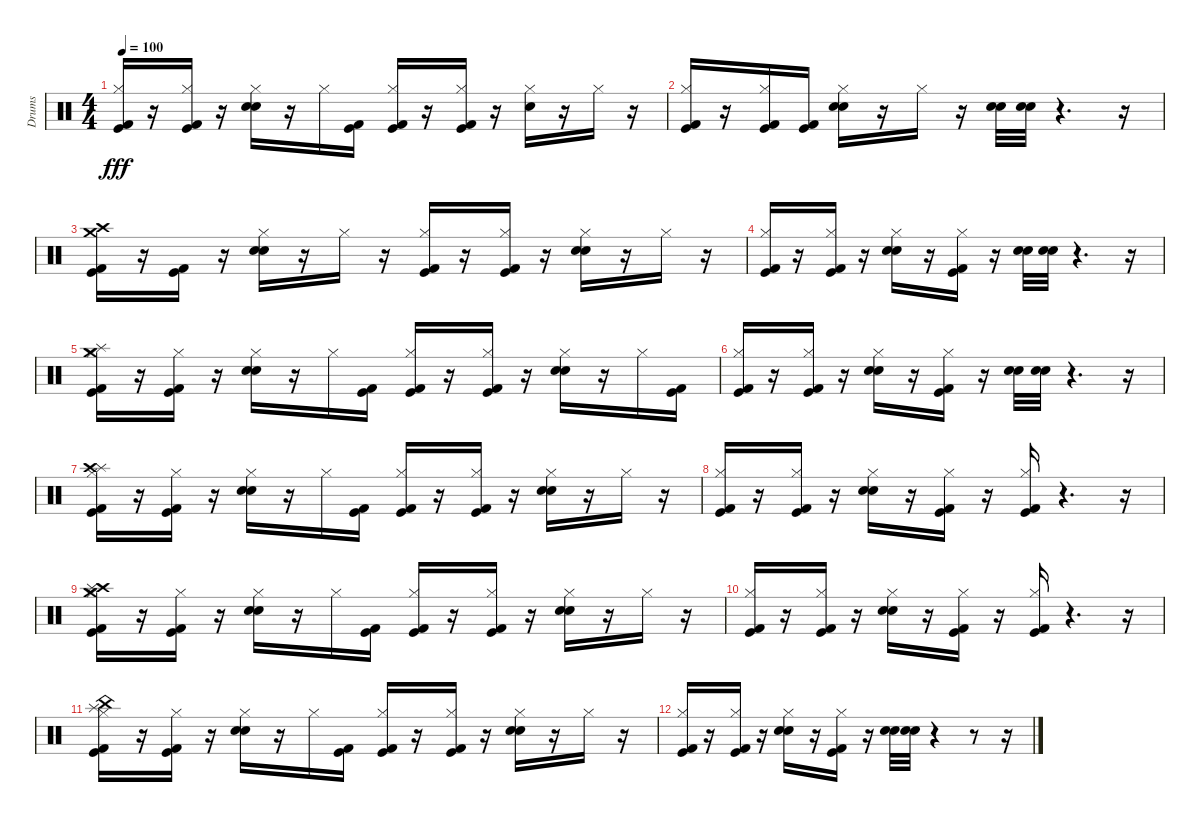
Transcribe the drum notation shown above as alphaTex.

\track ("Drums" "Drums") {instrument percussion}
\staff {score}
\articulation defaults
\ts (4 4)
\tempo 100
\clef neutral
\ks c
("Kick (hit)" "Hi-Hat (closed)" "Kick (hit) 2").16{dy fff} r.16 ("Kick (hit)" "Hi-Hat (closed)" "Kick (hit) 2").16 r.16 ("Electric Snare (hit)" "Snare (hit) 2" "Hi-Hat (closed)").16 r.16 "Hi-Hat (closed)".16 ("Kick (hit)" "Kick (hit) 2").16 ("Kick (hit) 2" "Kick (hit)" "Hi-Hat (closed)").16 r.16 ("Hi-Hat (closed)" "Kick (hit) 2" "Kick (hit)").16 r.16 ("Hi-Hat (closed)" "Electric Snare (hit)").16 r.16 "Hi-Hat (closed)".16 r.16 |
("Kick (hit) 2" "Kick (hit)" "Hi-Hat (closed)").16 r.16 ("Kick (hit)" "Hi-Hat (closed)" "Kick (hit) 2").16 ("Kick (hit)" "Kick (hit) 2").16 ("Hi-Hat (closed)" "Snare (hit) 2" "Electric Snare (hit)").16 r.16 "Hi-Hat (closed)".16 r.16 ("Electric Snare (hit)" "Snare (hit) 2").32 ("Electric Snare (hit)" "Snare (hit) 2").32 r.4{d} r.16 |
("Crash medium (hit)" "Crash high (hit)" "Kick (hit)" "Kick (hit) 2").16 r.16 ("Kick (hit)" "Kick (hit) 2").16 r.16 ("Hi-Hat (closed)" "Electric Snare (hit)" "Snare (hit) 2").16 r.16 "Hi-Hat (closed)".16 r.16 ("Hi-Hat (closed)" "Kick (hit) 2" "Kick (hit)").16 r.16 ("Kick (hit) 2" "Kick (hit)" "Hi-Hat (closed)").16 r.16 ("Snare (hit) 2" "Hi-Hat (closed)" "Electric Snare (hit)").16 r.16 "Hi-Hat (closed)".16 r.16 |
("Kick (hit)" "Kick (hit) 2" "Hi-Hat (closed)").16 r.16 ("Kick (hit)" "Kick (hit) 2" "Hi-Hat (closed)").16 r.16 ("Snare (hit) 2" "Hi-Hat (closed)" "Electric Snare (hit)").16 r.16 ("Kick (hit)" "Kick (hit) 2" "Hi-Hat (closed)").16 r.16 ("Electric Snare (hit)" "Snare (hit) 2").32 ("Electric Snare (hit)" "Snare (hit) 2").32 r.4{d} r.16 |
("Kick (hit)" "Hi-Hat (closed)" "Kick (hit) 2" "Crash medium (hit)" "Splash (hit)").16 r.16 ("Kick (hit)" "Hi-Hat (closed)" "Kick (hit) 2").16 r.16 ("Hi-Hat (closed)" "Snare (hit) 2" "Electric Snare (hit)").16 r.16 "Hi-Hat (closed)".16 ("Kick (hit)" "Kick (hit) 2").16 ("Kick (hit)" "Kick (hit) 2" "Hi-Hat (closed)").16 r.16 ("Kick (hit)" "Kick (hit) 2" "Hi-Hat (closed)").16 r.16 ("Snare (hit) 2" "Hi-Hat (closed)" "Electric Snare (hit)").16 r.16 "Hi-Hat (closed)".16 ("Kick (hit) 2" "Kick (hit)").16 |
("Hi-Hat (closed)" "Kick (hit)" "Kick (hit) 2").16 r.16 ("Kick (hit)" "Kick (hit) 2" "Hi-Hat (closed)").16 r.16 ("Electric Snare (hit)" "Snare (hit) 2" "Hi-Hat (closed)").16 r.16 ("Kick (hit)" "Kick (hit) 2" "Hi-Hat (closed)").16 r.16 ("Electric Snare (hit)" "Snare (hit) 2").32 ("Electric Snare (hit)" "Snare (hit) 2").32 r.4{d} r.16 |
("Kick (hit)" "Splash (hit)" "Crash high (hit)" "Kick (hit) 2" "Hi-Hat (closed)").16 r.16 ("Kick (hit)" "Kick (hit) 2" "Hi-Hat (closed)").16 r.16 ("Snare (hit) 2" "Electric Snare (hit)" "Hi-Hat (closed)").16 r.16 "Hi-Hat (closed)".16 ("Kick (hit)" "Kick (hit) 2").16 ("Kick (hit) 2" "Hi-Hat (closed)" "Kick (hit)").16 r.16 ("Kick (hit)" "Hi-Hat (closed)" "Kick (hit) 2").16 r.16 ("Hi-Hat (closed)" "Snare (hit) 2" "Electric Snare (hit)").16 r.16 "Hi-Hat (closed)".16 r.16 |
("Hi-Hat (closed)" "Kick (hit) 2" "Kick (hit)").16 r.16 ("Kick (hit)" "Hi-Hat (closed)" "Kick (hit) 2").16 r.16 ("Electric Snare (hit)" "Snare (hit) 2" "Hi-Hat (closed)").16 r.16 ("Kick (hit) 2" "Hi-Hat (closed)" "Kick (hit)").16 r.16 ("Hi-Hat (closed)" "Kick (hit) 2" "Kick (hit)").16 r.4{d} r.16 |
("Crash medium (hit)" "Crash high (hit)" "Kick (hit) 2" "Splash (hit)" "Hi-Hat (closed)" "Kick (hit)").16 r.16 ("Kick (hit) 2" "Hi-Hat (closed)" "Kick (hit)").16 r.16 ("Hi-Hat (closed)" "Snare (hit) 2" "Electric Snare (hit)").16 r.16 "Hi-Hat (closed)".16 ("Kick (hit) 2" "Kick (hit)").16 ("Kick (hit) 2" "Hi-Hat (closed)" "Kick (hit)").16 r.16 ("Kick (hit) 2" "Kick (hit)" "Hi-Hat (closed)").16 r.16 ("Snare (hit) 2" "Hi-Hat (closed)" "Electric Snare (hit)").16 r.16 "Hi-Hat (closed)".16 r.16 |
("Kick (hit) 2" "Kick (hit)" "Hi-Hat (closed)").16 r.16 ("Kick (hit)" "Kick (hit) 2" "Hi-Hat (closed)").16 r.16 ("Hi-Hat (closed)" "Electric Snare (hit)" "Snare (hit) 2").16 r.16 ("Hi-Hat (closed)" "Kick (hit)" "Kick (hit) 2").16 r.16 ("Kick (hit)" "Hi-Hat (closed)" "Kick (hit) 2").16 r.4{d} r.16 |
("Kick (hit)" "China (hit)" "Hi-Hat (closed)" "Splash (hit)" "Kick (hit) 2").16 r.16 ("Kick (hit)" "Hi-Hat (closed)" "Kick (hit) 2").16 r.16 ("Hi-Hat (closed)" "Electric Snare (hit)" "Snare (hit) 2").16 r.16 "Hi-Hat (closed)".16 ("Kick (hit) 2" "Kick (hit)").16 ("Hi-Hat (closed)" "Kick (hit)" "Kick (hit) 2").16 r.16 ("Kick (hit) 2" "Hi-Hat (closed)" "Kick (hit)").16 r.16 ("Electric Snare (hit)" "Hi-Hat (closed)" "Snare (hit) 2").16 r.16 "Hi-Hat (closed)".16 r.16 |
("Hi-Hat (closed)" "Kick (hit) 2" "Kick (hit)").16 r.16 ("Hi-Hat (closed)" "Kick (hit) 2" "Kick (hit)").16 r.16 ("Electric Snare (hit)" "Snare (hit) 2" "Hi-Hat (closed)").16 r.16 ("Hi-Hat (closed)" "Kick (hit) 2" "Kick (hit)").16 r.16 ("Snare (hit) 2" "Electric Snare (hit)").32 ("Electric Snare (hit)" "Snare (hit) 2").32 r.4 r.8 r.16
